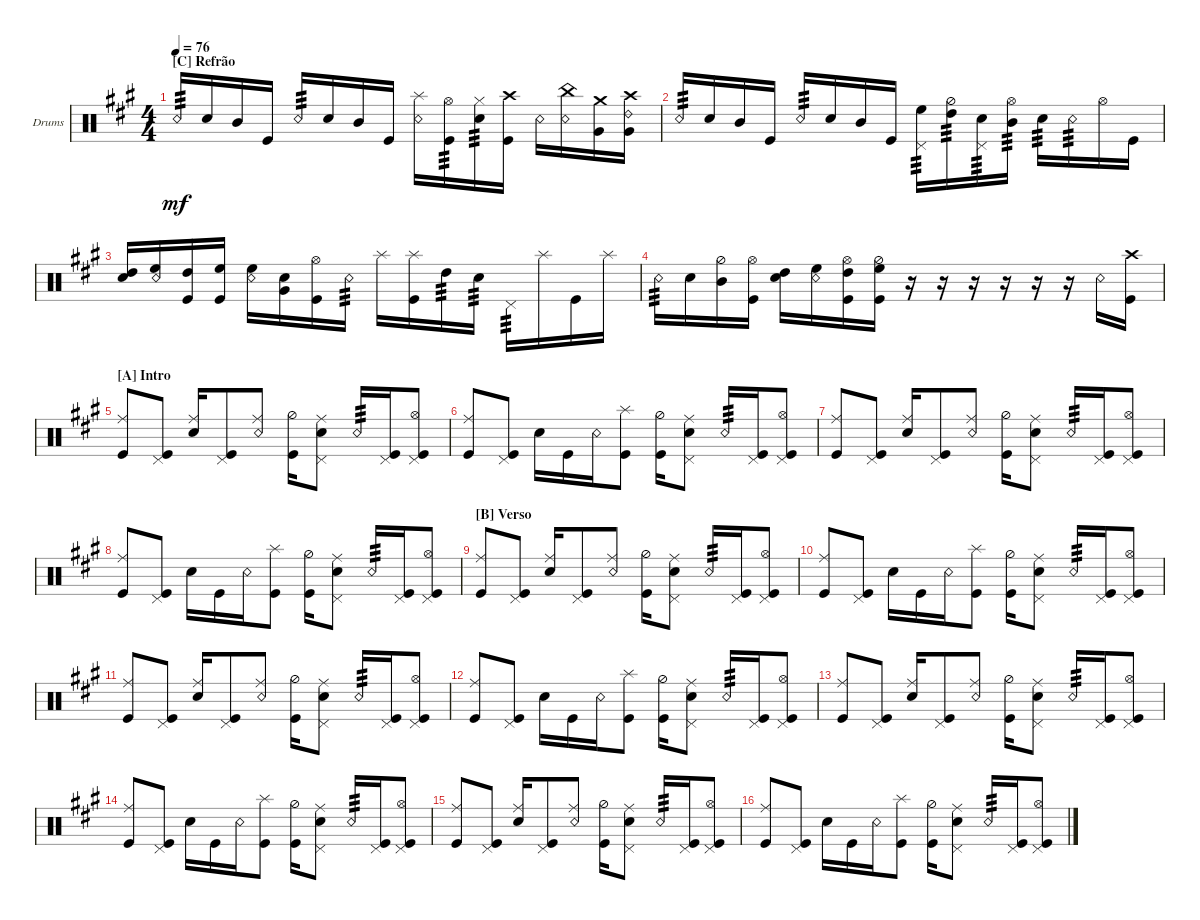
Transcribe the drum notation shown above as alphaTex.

\defaultSystemsLayout 4
\bracketExtendMode groupsimilarinstruments
\firstSystemTrackNameOrientation horizontal
\otherSystemsTrackNameOrientation horizontal
\track ("Drums" "Drums") {instrument percussion}
\staff {score}
\articulation defaults
\ts (4 4)
\section ("C" "Refrão")
\tempo 76
\clef neutral
\ks a "Snare (rim shot)".16{tp 3 dy mf} "Snare (hit) 2".16 "Mid Tom (hit)".16 "Kick (hit)".16 "Snare (rim shot)".16{tp 3} "Snare (hit) 2".16 "Mid Tom (hit)".16 "Kick (hit)".16
("Snare (rim shot)" "Splash (hit)").16 ("Kick (hit)" "Hi-Hat (open)").16{tp 3} ("Snare (hit) 2" "Hi-Hat (closed)").16{tp 3} ("Kick (hit)" "Crash high (hit)").16 "Snare (rim shot)".16 ("Snare (rim shot)" "China (hit)").16 ("Very Low Tom (hit)" "Crash medium (hit)").16 ("Very Low Tom (hit)" "Crash high (hit)" "Ride (bell) 2").16 |
"Snare (rim shot)".16{tp 3} "Snare (hit) 2".16 "Mid Tom (hit)".16 "Kick (hit)".16 "Snare (rim shot)".16{tp 3} "Snare (hit) 2".16 "Mid Tom (hit)".16 "Kick (hit)".16 ("High Floor Tom (hit)" "Pedal Hi-Hat (hit)").16{tp 3} ("High Tom (hit)" "Hi-Hat (half)").16{tp 3} ("Snare (hit) 2" "Pedal Hi-Hat (hit)").16{tp 3} ("Mid Tom (hit)" "Hi-Hat (open)").16{tp 3} "Snare (hit) 2".16{tp 3} "Snare (rim shot)".16{tp 3} "Hi-Hat (open)".16 "Kick (hit)".16 |
("Snare (hit) 2" "High Tom (hit)").16 ("Snare (rim shot)" "High Floor Tom (hit)").16 ("Kick (hit)" "High Tom (hit)").16 ("Kick (hit)" "High Floor Tom (hit)").16 ("Snare (rim shot)" "High Floor Tom (hit)").16 ("Snare (hit) 2" "Very Low Tom (hit)").16 ("Kick (hit)" "Hi-Hat (open)").16 "Snare (rim shot)".16{tp 3} "Splash (hit)".16 ("Splash (hit)" "Kick (hit)").16 "High Tom (hit)".16{tp 3} "Snare (hit) 2".16{tp 3} "Pedal Hi-Hat (hit)".16{tp 3} "Splash (hit)".16 "Kick (hit)".16 "Splash (hit)".16 |
"Snare (rim shot)".16{tp 3} "Snare (hit) 2".16 ("Mid Tom (hit)" "Hi-Hat (half)").16 ("Kick (hit)" "Hi-Hat (open)").16 ("Snare (hit) 2" "High Tom (hit)").16 ("Snare (rim shot)" "High Floor Tom (hit)").16 ("Kick (hit)" "High Tom (hit)" "Hi-Hat (open)").16 ("Kick (hit)" "High Floor Tom (hit)" "Hi-Hat (half)").16 r.16 r.16 r.16 r.16 r.16 r.16 "Snare (rim shot)".16 ("Kick (hit)" "Crash high (hit)").16 |
\section ("A" "Intro")
("Kick (hit)" "Ride (middle)").8 ("Kick (hit)" "Pedal Hi-Hat (hit)").8 ("Snare (hit) 2" "Ride (middle)").16 ("Kick (hit)" "Pedal Hi-Hat (hit)").8 ("Snare (rim shot)" "Ride (middle)").8 ("Kick (hit)" "Hi-Hat (half)").16 ("Snare (hit) 2" "Ride (middle)" "Pedal Hi-Hat (hit)").8 "Snare (rim shot)".16{tp 3} ("Kick (hit)" "Pedal Hi-Hat (hit)").16 ("Kick (hit)" "Pedal Hi-Hat (hit)" "Hi-Hat (open)").8 |
("Kick (hit)" "Ride (middle)").8 ("Kick (hit)" "Pedal Hi-Hat (hit)").8 "Snare (hit) 2".16 "Kick (hit)".16 "Snare (rim shot)".16 ("Splash (hit)" "Kick (hit)").8 ("Kick (hit)" "Hi-Hat (half)").16 ("Snare (hit) 2" "Ride (middle)" "Pedal Hi-Hat (hit)").8 "Snare (rim shot)".16{tp 3} ("Kick (hit)" "Pedal Hi-Hat (hit)").16 ("Kick (hit)" "Pedal Hi-Hat (hit)" "Hi-Hat (open)").8 |
("Kick (hit)" "Ride (middle)").8 ("Kick (hit)" "Pedal Hi-Hat (hit)").8 ("Snare (hit) 2" "Ride (middle)").16 ("Kick (hit)" "Pedal Hi-Hat (hit)").8 ("Snare (rim shot)" "Ride (middle)").8 ("Kick (hit)" "Hi-Hat (half)").16 ("Snare (hit) 2" "Ride (middle)" "Pedal Hi-Hat (hit)").8 "Snare (rim shot)".16{tp 3} ("Kick (hit)" "Pedal Hi-Hat (hit)").16 ("Kick (hit)" "Pedal Hi-Hat (hit)" "Hi-Hat (open)").8 |
("Kick (hit)" "Ride (middle)").8 ("Kick (hit)" "Pedal Hi-Hat (hit)").8 "Snare (hit) 2".16 "Kick (hit)".16 "Snare (rim shot)".16 ("Splash (hit)" "Kick (hit)").8 ("Kick (hit)" "Hi-Hat (half)").16 ("Snare (hit) 2" "Ride (middle)" "Pedal Hi-Hat (hit)").8 "Snare (rim shot)".16{tp 3} ("Kick (hit)" "Pedal Hi-Hat (hit)").16 ("Kick (hit)" "Pedal Hi-Hat (hit)" "Hi-Hat (open)").8 |
\section ("B" "Verso")
("Kick (hit)" "Ride (middle)").8 ("Kick (hit)" "Pedal Hi-Hat (hit)").8 ("Snare (hit) 2" "Ride (middle)").16 ("Kick (hit)" "Pedal Hi-Hat (hit)").8 ("Snare (rim shot)" "Ride (middle)").8 ("Kick (hit)" "Hi-Hat (half)").16 ("Snare (hit) 2" "Ride (middle)" "Pedal Hi-Hat (hit)").8 "Snare (rim shot)".16{tp 3} ("Kick (hit)" "Pedal Hi-Hat (hit)").16 ("Kick (hit)" "Pedal Hi-Hat (hit)" "Hi-Hat (open)").8 |
("Kick (hit)" "Ride (middle)").8 ("Kick (hit)" "Pedal Hi-Hat (hit)").8 "Snare (hit) 2".16 "Kick (hit)".16 "Snare (rim shot)".16 ("Splash (hit)" "Kick (hit)").8 ("Kick (hit)" "Hi-Hat (half)").16 ("Snare (hit) 2" "Ride (middle)" "Pedal Hi-Hat (hit)").8 "Snare (rim shot)".16{tp 3} ("Kick (hit)" "Pedal Hi-Hat (hit)").16 ("Kick (hit)" "Pedal Hi-Hat (hit)" "Hi-Hat (open)").8 |
("Kick (hit)" "Ride (middle)").8 ("Kick (hit)" "Pedal Hi-Hat (hit)").8 ("Snare (hit) 2" "Ride (middle)").16 ("Kick (hit)" "Pedal Hi-Hat (hit)").8 ("Snare (rim shot)" "Ride (middle)").8 ("Kick (hit)" "Hi-Hat (half)").16 ("Snare (hit) 2" "Ride (middle)" "Pedal Hi-Hat (hit)").8 "Snare (rim shot)".16{tp 3} ("Kick (hit)" "Pedal Hi-Hat (hit)").16 ("Kick (hit)" "Pedal Hi-Hat (hit)" "Hi-Hat (open)").8 |
("Kick (hit)" "Ride (middle)").8 ("Kick (hit)" "Pedal Hi-Hat (hit)").8 "Snare (hit) 2".16 "Kick (hit)".16 "Snare (rim shot)".16 ("Splash (hit)" "Kick (hit)").8 ("Kick (hit)" "Hi-Hat (half)").16 ("Snare (hit) 2" "Ride (middle)" "Pedal Hi-Hat (hit)").8 "Snare (rim shot)".16{tp 3} ("Kick (hit)" "Pedal Hi-Hat (hit)").16 ("Kick (hit)" "Pedal Hi-Hat (hit)" "Hi-Hat (open)").8 |
("Kick (hit)" "Ride (middle)").8 ("Kick (hit)" "Pedal Hi-Hat (hit)").8 ("Snare (hit) 2" "Ride (middle)").16 ("Kick (hit)" "Pedal Hi-Hat (hit)").8 ("Snare (rim shot)" "Ride (middle)").8 ("Kick (hit)" "Hi-Hat (half)").16 ("Snare (hit) 2" "Ride (middle)" "Pedal Hi-Hat (hit)").8 "Snare (rim shot)".16{tp 3} ("Kick (hit)" "Pedal Hi-Hat (hit)").16 ("Kick (hit)" "Pedal Hi-Hat (hit)" "Hi-Hat (open)").8 |
("Kick (hit)" "Ride (middle)").8 ("Kick (hit)" "Pedal Hi-Hat (hit)").8 "Snare (hit) 2".16 "Kick (hit)".16 "Snare (rim shot)".16 ("Splash (hit)" "Kick (hit)").8 ("Kick (hit)" "Hi-Hat (half)").16 ("Snare (hit) 2" "Ride (middle)" "Pedal Hi-Hat (hit)").8 "Snare (rim shot)".16{tp 3} ("Kick (hit)" "Pedal Hi-Hat (hit)").16 ("Kick (hit)" "Pedal Hi-Hat (hit)" "Hi-Hat (open)").8 |
("Kick (hit)" "Ride (middle)").8 ("Kick (hit)" "Pedal Hi-Hat (hit)").8 ("Snare (hit) 2" "Ride (middle)").16 ("Kick (hit)" "Pedal Hi-Hat (hit)").8 ("Snare (rim shot)" "Ride (middle)").8 ("Kick (hit)" "Hi-Hat (half)").16 ("Snare (hit) 2" "Ride (middle)" "Pedal Hi-Hat (hit)").8 "Snare (rim shot)".16{tp 3} ("Kick (hit)" "Pedal Hi-Hat (hit)").16 ("Kick (hit)" "Pedal Hi-Hat (hit)" "Hi-Hat (open)").8 |
("Kick (hit)" "Ride (middle)").8 ("Kick (hit)" "Pedal Hi-Hat (hit)").8 "Snare (hit) 2".16 "Kick (hit)".16 "Snare (rim shot)".16 ("Splash (hit)" "Kick (hit)").8 ("Kick (hit)" "Hi-Hat (half)").16 ("Snare (hit) 2" "Ride (middle)" "Pedal Hi-Hat (hit)").8 "Snare (rim shot)".16{tp 3} ("Kick (hit)" "Pedal Hi-Hat (hit)").16 ("Kick (hit)" "Pedal Hi-Hat (hit)" "Hi-Hat (open)").8
